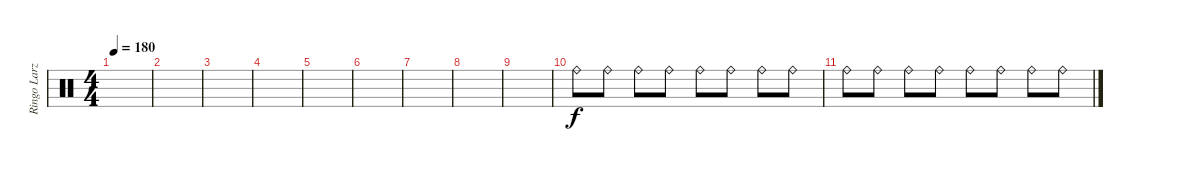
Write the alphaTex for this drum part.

\track ("Ringo Larz" "Ringo Larz") {instrument percussion}
\staff {score}
\articulation defaults
\ts (4 4)
\tempo 180
\clef neutral
\ks c
|
|
|
|
|
|
|
|
|
"Ride (bell)".8 "Ride (bell)".8 "Ride (bell)".8 "Ride (bell)".8 "Ride (bell)".8 "Ride (bell)".8 "Ride (bell)".8 "Ride (bell)".8 |
"Ride (bell)".8 "Ride (bell)".8 "Ride (bell)".8 "Ride (bell)".8 "Ride (bell)".8 "Ride (bell)".8 "Ride (bell)".8 "Ride (bell)".8
